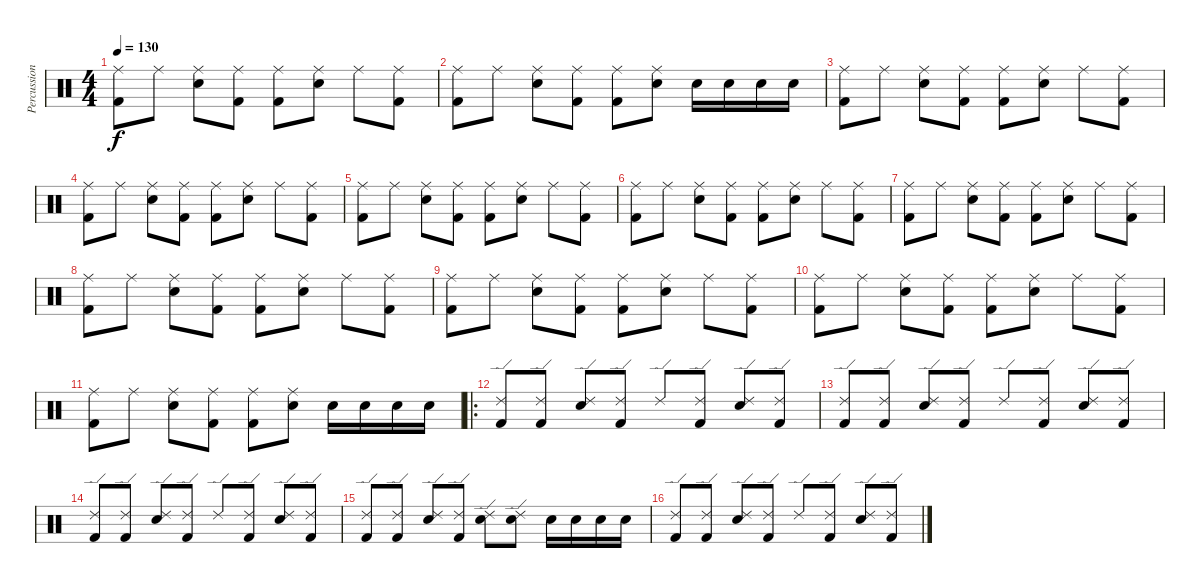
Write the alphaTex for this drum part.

\track ("Percussion" "Percussion") {instrument percussion}
\staff {score}
\articulation defaults
\ts (4 4)
\tempo 130
\clef neutral
\ks c
("Kick (hit) 2" "Ride (middle)").8{dy f} "Ride (middle)".8 ("Snare (hit) 2" "Ride (middle)").8 ("Kick (hit) 2" "Ride (middle)").8 ("Kick (hit) 2" "Ride (middle)").8 ("Snare (hit) 2" "Ride (middle)").8 "Ride (middle)".8 ("Kick (hit) 2" "Ride (middle)").8 |
("Kick (hit) 2" "Ride (middle)").8 "Ride (middle)".8 ("Snare (hit) 2" "Ride (middle)").8 ("Kick (hit) 2" "Ride (middle)").8 ("Kick (hit) 2" "Ride (middle)").8 ("Snare (hit) 2" "Ride (middle)").8 "Snare (hit) 2".16 "Snare (hit) 2".16 "Snare (hit) 2".16 "Snare (hit) 2".16 |
("Kick (hit) 2" "Ride (middle)").8 "Ride (middle)".8 ("Snare (hit) 2" "Ride (middle)").8 ("Kick (hit) 2" "Ride (middle)").8 ("Kick (hit) 2" "Ride (middle)").8 ("Snare (hit) 2" "Ride (middle)").8 "Ride (middle)".8 ("Kick (hit) 2" "Ride (middle)").8 |
("Kick (hit) 2" "Ride (middle)").8 "Ride (middle)".8 ("Snare (hit) 2" "Ride (middle)").8 ("Kick (hit) 2" "Ride (middle)").8 ("Kick (hit) 2" "Ride (middle)").8 ("Snare (hit) 2" "Ride (middle)").8 "Ride (middle)".8 ("Kick (hit) 2" "Ride (middle)").8 |
("Kick (hit) 2" "Ride (middle)").8 "Ride (middle)".8 ("Snare (hit) 2" "Ride (middle)").8 ("Kick (hit) 2" "Ride (middle)").8 ("Kick (hit) 2" "Ride (middle)").8 ("Snare (hit) 2" "Ride (middle)").8 "Ride (middle)".8 ("Kick (hit) 2" "Ride (middle)").8 |
("Kick (hit) 2" "Ride (middle)").8 "Ride (middle)".8 ("Snare (hit) 2" "Ride (middle)").8 ("Kick (hit) 2" "Ride (middle)").8 ("Kick (hit) 2" "Ride (middle)").8 ("Snare (hit) 2" "Ride (middle)").8 "Ride (middle)".8 ("Kick (hit) 2" "Ride (middle)").8 |
("Kick (hit) 2" "Ride (middle)").8 "Ride (middle)".8 ("Snare (hit) 2" "Ride (middle)").8 ("Kick (hit) 2" "Ride (middle)").8 ("Kick (hit) 2" "Ride (middle)").8 ("Snare (hit) 2" "Ride (middle)").8 "Ride (middle)".8 ("Kick (hit) 2" "Ride (middle)").8 |
("Kick (hit) 2" "Ride (middle)").8 "Ride (middle)".8 ("Snare (hit) 2" "Ride (middle)").8 ("Kick (hit) 2" "Ride (middle)").8 ("Kick (hit) 2" "Ride (middle)").8 ("Snare (hit) 2" "Ride (middle)").8 "Ride (middle)".8 ("Kick (hit) 2" "Ride (middle)").8 |
("Kick (hit) 2" "Ride (middle)").8 "Ride (middle)".8 ("Snare (hit) 2" "Ride (middle)").8 ("Kick (hit) 2" "Ride (middle)").8 ("Kick (hit) 2" "Ride (middle)").8 ("Snare (hit) 2" "Ride (middle)").8 "Ride (middle)".8 ("Kick (hit) 2" "Ride (middle)").8 |
("Kick (hit) 2" "Ride (middle)").8 "Ride (middle)".8 ("Snare (hit) 2" "Ride (middle)").8 ("Kick (hit) 2" "Ride (middle)").8 ("Kick (hit) 2" "Ride (middle)").8 ("Snare (hit) 2" "Ride (middle)").8 "Ride (middle)".8 ("Kick (hit) 2" "Ride (middle)").8 |
("Kick (hit) 2" "Ride (middle)").8 "Ride (middle)".8 ("Snare (hit) 2" "Ride (middle)").8 ("Kick (hit) 2" "Ride (middle)").8 ("Kick (hit) 2" "Ride (middle)").8 ("Snare (hit) 2" "Ride (middle)").8 "Snare (hit) 2".16 "Snare (hit) 2".16 "Snare (hit) 2".16 "Snare (hit) 2".16 |
\ro
("Kick (hit) 2" "Ride (edge) 2").8 ("Kick (hit) 2" "Ride (edge) 2").8 ("Snare (hit) 2" "Ride (edge) 2").8 ("Kick (hit) 2" "Ride (edge) 2").8 "Ride (edge) 2".8 ("Kick (hit) 2" "Ride (edge) 2").8 ("Snare (hit) 2" "Ride (edge) 2").8 ("Kick (hit) 2" "Ride (edge) 2").8 |
("Kick (hit) 2" "Ride (edge) 2").8 ("Kick (hit) 2" "Ride (edge) 2").8 ("Snare (hit) 2" "Ride (edge) 2").8 ("Kick (hit) 2" "Ride (edge) 2").8 "Ride (edge) 2".8 ("Kick (hit) 2" "Ride (edge) 2").8 ("Snare (hit) 2" "Ride (edge) 2").8 ("Kick (hit) 2" "Ride (edge) 2").8 |
("Kick (hit) 2" "Ride (edge) 2").8 ("Kick (hit) 2" "Ride (edge) 2").8 ("Snare (hit) 2" "Ride (edge) 2").8 ("Kick (hit) 2" "Ride (edge) 2").8 "Ride (edge) 2".8 ("Kick (hit) 2" "Ride (edge) 2").8 ("Snare (hit) 2" "Ride (edge) 2").8 ("Kick (hit) 2" "Ride (edge) 2").8 |
("Kick (hit) 2" "Ride (edge) 2").8 ("Kick (hit) 2" "Ride (edge) 2").8 ("Snare (hit) 2" "Ride (edge) 2").8 ("Kick (hit) 2" "Ride (edge) 2").8 ("Snare (hit) 2" "Ride (edge) 2").8 ("Snare (hit) 2" "Ride (edge) 2").8 "Snare (hit) 2".16 "Snare (hit) 2".16 "Snare (hit) 2".16 "Snare (hit) 2".16 |
("Kick (hit) 2" "Ride (edge) 2").8 ("Kick (hit) 2" "Ride (edge) 2").8 ("Snare (hit) 2" "Ride (edge) 2").8 ("Kick (hit) 2" "Ride (edge) 2").8 "Ride (edge) 2".8 ("Kick (hit) 2" "Ride (edge) 2").8 ("Snare (hit) 2" "Ride (edge) 2").8 ("Kick (hit) 2" "Ride (edge) 2").8
